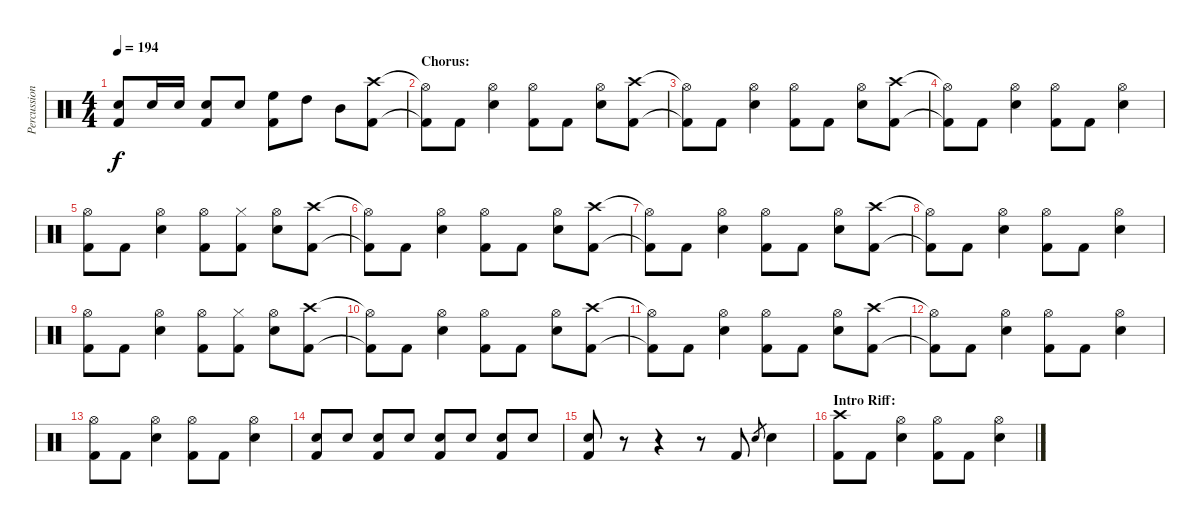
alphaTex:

\track ("Percussion" "Percussion") {instrument percussion}
\staff {score}
\articulation defaults
\ts (4 4)
\tempo 194
\clef neutral
\ks c
("Electric Snare (hit)" "Kick (hit) 2").8{dy f} "Electric Snare (hit)".16 "Electric Snare (hit)".16 ("Electric Snare (hit)" "Kick (hit) 2").8 "Electric Snare (hit)".8 ("High Floor Tom (hit)" "Kick (hit) 2").8 "High Tom (hit)".8 "Mid Tom (hit)".8 ("Crash high (hit)" "Kick (hit) 2").8 |
\section ("" "Chorus:")
("Hi-Hat (open)"{t} "Kick (hit) 2"{t}).8 "Kick (hit) 2".8 ("Hi-Hat (open)" "Electric Snare (hit)").4 ("Hi-Hat (open)" "Kick (hit) 2").8 "Kick (hit) 2".8 ("Hi-Hat (open)" "Electric Snare (hit)").8 ("Crash high (hit)" "Kick (hit) 2").8 |
("Hi-Hat (open)"{t} "Kick (hit) 2"{t}).8 "Kick (hit) 2".8 ("Hi-Hat (open)" "Electric Snare (hit)").4 ("Hi-Hat (open)" "Kick (hit) 2").8 "Kick (hit) 2".8 ("Hi-Hat (open)" "Electric Snare (hit)").8 ("Crash high (hit)" "Kick (hit) 2").8 |
("Hi-Hat (open)"{t} "Kick (hit) 2"{t}).8 "Kick (hit) 2".8 ("Hi-Hat (open)" "Electric Snare (hit)").4 ("Hi-Hat (open)" "Kick (hit) 2").8 "Kick (hit) 2".8 ("Hi-Hat (open)" "Electric Snare (hit)").4 |
("Hi-Hat (open)" "Kick (hit) 2").8 "Kick (hit) 2".8 ("Hi-Hat (open)" "Electric Snare (hit)").4 ("Hi-Hat (open)" "Kick (hit) 2").8 ("Hi-Hat (closed)" "Kick (hit) 2").8 ("Hi-Hat (open)" "Electric Snare (hit)").8 ("Crash high (hit)" "Kick (hit) 2").8 |
("Hi-Hat (open)"{t} "Kick (hit) 2"{t}).8 "Kick (hit) 2".8 ("Hi-Hat (open)" "Electric Snare (hit)").4 ("Hi-Hat (open)" "Kick (hit) 2").8 "Kick (hit) 2".8 ("Hi-Hat (open)" "Electric Snare (hit)").8 ("Crash high (hit)" "Kick (hit) 2").8 |
("Hi-Hat (open)"{t} "Kick (hit) 2"{t}).8 "Kick (hit) 2".8 ("Hi-Hat (open)" "Electric Snare (hit)").4 ("Hi-Hat (open)" "Kick (hit) 2").8 "Kick (hit) 2".8 ("Hi-Hat (open)" "Electric Snare (hit)").8 ("Crash high (hit)" "Kick (hit) 2").8 |
("Hi-Hat (open)"{t} "Kick (hit) 2"{t}).8 "Kick (hit) 2".8 ("Hi-Hat (open)" "Electric Snare (hit)").4 ("Hi-Hat (open)" "Kick (hit) 2").8 "Kick (hit) 2".8 ("Hi-Hat (open)" "Electric Snare (hit)").4 |
("Hi-Hat (open)" "Kick (hit) 2").8 "Kick (hit) 2".8 ("Hi-Hat (open)" "Electric Snare (hit)").4 ("Hi-Hat (open)" "Kick (hit) 2").8 ("Hi-Hat (closed)" "Kick (hit) 2").8 ("Hi-Hat (open)" "Electric Snare (hit)").8 ("Crash high (hit)" "Kick (hit) 2").8 |
("Hi-Hat (open)"{t} "Kick (hit) 2"{t}).8 "Kick (hit) 2".8 ("Hi-Hat (open)" "Electric Snare (hit)").4 ("Hi-Hat (open)" "Kick (hit) 2").8 "Kick (hit) 2".8 ("Hi-Hat (open)" "Electric Snare (hit)").8 ("Crash high (hit)" "Kick (hit) 2").8 |
("Hi-Hat (open)"{t} "Kick (hit) 2"{t}).8 "Kick (hit) 2".8 ("Hi-Hat (open)" "Electric Snare (hit)").4 ("Hi-Hat (open)" "Kick (hit) 2").8 "Kick (hit) 2".8 ("Hi-Hat (open)" "Electric Snare (hit)").8 ("Crash high (hit)" "Kick (hit) 2").8 |
("Hi-Hat (open)"{t} "Kick (hit) 2"{t}).8 "Kick (hit) 2".8 ("Hi-Hat (open)" "Electric Snare (hit)").4 ("Hi-Hat (open)" "Kick (hit) 2").8 "Kick (hit) 2".8 ("Hi-Hat (open)" "Electric Snare (hit)").4 |
("Hi-Hat (open)" "Kick (hit) 2").8 "Kick (hit) 2".8 ("Hi-Hat (open)" "Electric Snare (hit)").4 ("Hi-Hat (open)" "Kick (hit) 2").8 "Kick (hit) 2".8 ("Hi-Hat (open)" "Electric Snare (hit)").4 |
("Electric Snare (hit)" "Kick (hit) 2").8 "Electric Snare (hit)".8 ("Electric Snare (hit)" "Kick (hit) 2").8 "Electric Snare (hit)".8 ("Electric Snare (hit)" "Kick (hit) 2").8 "Electric Snare (hit)".8 ("Electric Snare (hit)" "Kick (hit) 2").8 "Electric Snare (hit)".8 |
("Electric Snare (hit)" "Kick (hit) 2").8 r.8 r.4 r.8 "Kick (hit) 2".8 "Electric Snare (hit)".8{gr} "Electric Snare (hit)".4 |
\section ("" "Intro Riff:")
("Crash high (hit)" "Kick (hit) 2").8 "Kick (hit) 2".8 ("Hi-Hat (open)" "Electric Snare (hit)").4 ("Hi-Hat (open)" "Kick (hit) 2").8 "Kick (hit) 2".8 ("Hi-Hat (open)" "Electric Snare (hit)").4
